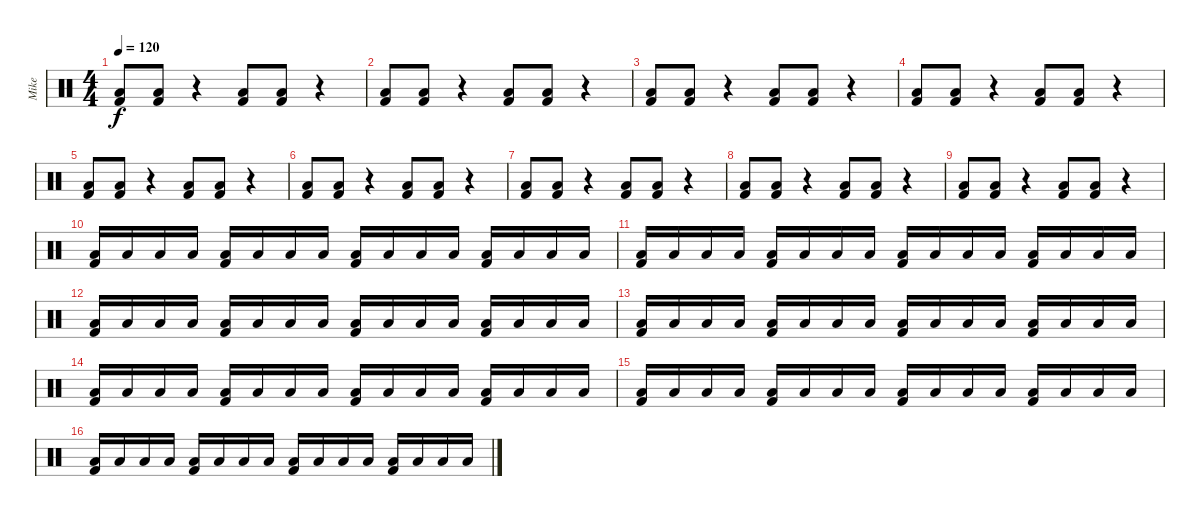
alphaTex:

\track ("Mike" "Mike") {instrument percussion}
\staff {score}
\articulation defaults
\ts (4 4)
\tempo 120
\clef neutral
\ks c
("Low Floor Tom (hit)" "Kick (hit) 2").8{dy f} ("Low Floor Tom (hit)" "Kick (hit) 2").8 r.4 ("Low Floor Tom (hit)" "Kick (hit) 2").8 ("Low Floor Tom (hit)" "Kick (hit) 2").8 r.4 |
("Low Floor Tom (hit)" "Kick (hit) 2").8 ("Low Floor Tom (hit)" "Kick (hit) 2").8 r.4 ("Low Floor Tom (hit)" "Kick (hit) 2").8 ("Low Floor Tom (hit)" "Kick (hit) 2").8 r.4 |
("Low Floor Tom (hit)" "Kick (hit) 2").8 ("Low Floor Tom (hit)" "Kick (hit) 2").8 r.4 ("Low Floor Tom (hit)" "Kick (hit) 2").8 ("Low Floor Tom (hit)" "Kick (hit) 2").8 r.4 |
("Low Floor Tom (hit)" "Kick (hit) 2").8 ("Low Floor Tom (hit)" "Kick (hit) 2").8 r.4 ("Low Floor Tom (hit)" "Kick (hit) 2").8 ("Low Floor Tom (hit)" "Kick (hit) 2").8 r.4 |
("Low Floor Tom (hit)" "Kick (hit) 2").8 ("Low Floor Tom (hit)" "Kick (hit) 2").8 r.4 ("Low Floor Tom (hit)" "Kick (hit) 2").8 ("Low Floor Tom (hit)" "Kick (hit) 2").8 r.4 |
("Low Floor Tom (hit)" "Kick (hit) 2").8 ("Low Floor Tom (hit)" "Kick (hit) 2").8 r.4 ("Low Floor Tom (hit)" "Kick (hit) 2").8 ("Low Floor Tom (hit)" "Kick (hit) 2").8 r.4 |
("Low Floor Tom (hit)" "Kick (hit) 2").8 ("Low Floor Tom (hit)" "Kick (hit) 2").8 r.4 ("Low Floor Tom (hit)" "Kick (hit) 2").8 ("Low Floor Tom (hit)" "Kick (hit) 2").8 r.4 |
("Low Floor Tom (hit)" "Kick (hit) 2").8 ("Low Floor Tom (hit)" "Kick (hit) 2").8 r.4 ("Low Floor Tom (hit)" "Kick (hit) 2").8 ("Low Floor Tom (hit)" "Kick (hit) 2").8 r.4 |
("Low Floor Tom (hit)" "Kick (hit) 2").8 ("Low Floor Tom (hit)" "Kick (hit) 2").8 r.4 ("Low Floor Tom (hit)" "Kick (hit) 2").8 ("Low Floor Tom (hit)" "Kick (hit) 2").8 r.4 |
("Low Floor Tom (hit)" "Kick (hit) 2").16 "Low Floor Tom (hit)".16 "Low Floor Tom (hit)".16 "Low Floor Tom (hit)".16 ("Low Floor Tom (hit)" "Kick (hit) 2").16 "Low Floor Tom (hit)".16 "Low Floor Tom (hit)".16 "Low Floor Tom (hit)".16 ("Low Floor Tom (hit)" "Kick (hit) 2").16 "Low Floor Tom (hit)".16 "Low Floor Tom (hit)".16 "Low Floor Tom (hit)".16 ("Low Floor Tom (hit)" "Kick (hit) 2").16 "Low Floor Tom (hit)".16 "Low Floor Tom (hit)".16 "Low Floor Tom (hit)".16 |
("Low Floor Tom (hit)" "Kick (hit) 2").16 "Low Floor Tom (hit)".16 "Low Floor Tom (hit)".16 "Low Floor Tom (hit)".16 ("Low Floor Tom (hit)" "Kick (hit) 2").16 "Low Floor Tom (hit)".16 "Low Floor Tom (hit)".16 "Low Floor Tom (hit)".16 ("Low Floor Tom (hit)" "Kick (hit) 2").16 "Low Floor Tom (hit)".16 "Low Floor Tom (hit)".16 "Low Floor Tom (hit)".16 ("Low Floor Tom (hit)" "Kick (hit) 2").16 "Low Floor Tom (hit)".16 "Low Floor Tom (hit)".16 "Low Floor Tom (hit)".16 |
("Low Floor Tom (hit)" "Kick (hit) 2").16 "Low Floor Tom (hit)".16 "Low Floor Tom (hit)".16 "Low Floor Tom (hit)".16 ("Low Floor Tom (hit)" "Kick (hit) 2").16 "Low Floor Tom (hit)".16 "Low Floor Tom (hit)".16 "Low Floor Tom (hit)".16 ("Low Floor Tom (hit)" "Kick (hit) 2").16 "Low Floor Tom (hit)".16 "Low Floor Tom (hit)".16 "Low Floor Tom (hit)".16 ("Low Floor Tom (hit)" "Kick (hit) 2").16 "Low Floor Tom (hit)".16 "Low Floor Tom (hit)".16 "Low Floor Tom (hit)".16 |
("Low Floor Tom (hit)" "Kick (hit) 2").16 "Low Floor Tom (hit)".16 "Low Floor Tom (hit)".16 "Low Floor Tom (hit)".16 ("Low Floor Tom (hit)" "Kick (hit) 2").16 "Low Floor Tom (hit)".16 "Low Floor Tom (hit)".16 "Low Floor Tom (hit)".16 ("Low Floor Tom (hit)" "Kick (hit) 2").16 "Low Floor Tom (hit)".16 "Low Floor Tom (hit)".16 "Low Floor Tom (hit)".16 ("Low Floor Tom (hit)" "Kick (hit) 2").16 "Low Floor Tom (hit)".16 "Low Floor Tom (hit)".16 "Low Floor Tom (hit)".16 |
("Low Floor Tom (hit)" "Kick (hit) 2").16 "Low Floor Tom (hit)".16 "Low Floor Tom (hit)".16 "Low Floor Tom (hit)".16 ("Low Floor Tom (hit)" "Kick (hit) 2").16 "Low Floor Tom (hit)".16 "Low Floor Tom (hit)".16 "Low Floor Tom (hit)".16 ("Low Floor Tom (hit)" "Kick (hit) 2").16 "Low Floor Tom (hit)".16 "Low Floor Tom (hit)".16 "Low Floor Tom (hit)".16 ("Low Floor Tom (hit)" "Kick (hit) 2").16 "Low Floor Tom (hit)".16 "Low Floor Tom (hit)".16 "Low Floor Tom (hit)".16 |
("Low Floor Tom (hit)" "Kick (hit) 2").16 "Low Floor Tom (hit)".16 "Low Floor Tom (hit)".16 "Low Floor Tom (hit)".16 ("Low Floor Tom (hit)" "Kick (hit) 2").16 "Low Floor Tom (hit)".16 "Low Floor Tom (hit)".16 "Low Floor Tom (hit)".16 ("Low Floor Tom (hit)" "Kick (hit) 2").16 "Low Floor Tom (hit)".16 "Low Floor Tom (hit)".16 "Low Floor Tom (hit)".16 ("Low Floor Tom (hit)" "Kick (hit) 2").16 "Low Floor Tom (hit)".16 "Low Floor Tom (hit)".16 "Low Floor Tom (hit)".16 |
("Low Floor Tom (hit)" "Kick (hit) 2").16 "Low Floor Tom (hit)".16 "Low Floor Tom (hit)".16 "Low Floor Tom (hit)".16 ("Low Floor Tom (hit)" "Kick (hit) 2").16 "Low Floor Tom (hit)".16 "Low Floor Tom (hit)".16 "Low Floor Tom (hit)".16 ("Low Floor Tom (hit)" "Kick (hit) 2").16 "Low Floor Tom (hit)".16 "Low Floor Tom (hit)".16 "Low Floor Tom (hit)".16 ("Low Floor Tom (hit)" "Kick (hit) 2").16 "Low Floor Tom (hit)".16 "Low Floor Tom (hit)".16 "Low Floor Tom (hit)".16
